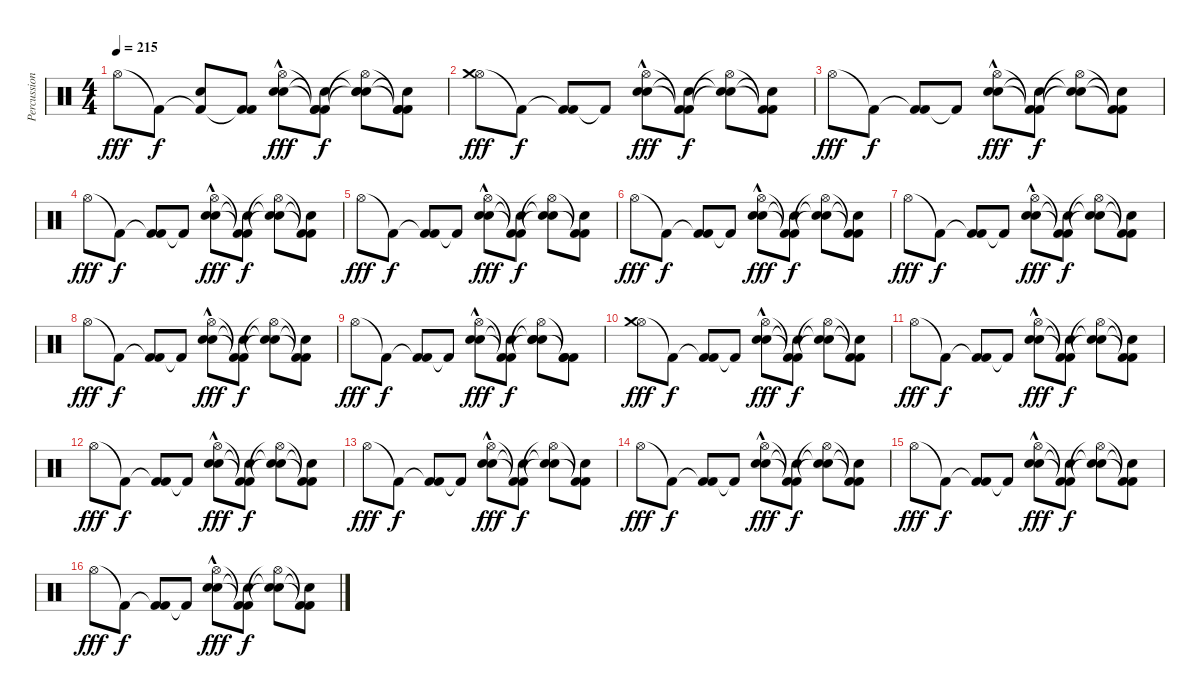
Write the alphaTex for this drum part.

\track ("Percussion" "Percussion") {instrument percussion}
\staff {score}
\articulation defaults
\ts (4 4)
\tempo 215
\clef neutral
\ks c "Hi-Hat (open)".8{dy fff} "Kick (hit) 2"{t}.8{dy f}
("Kick (hit) 2"{t} "Electric Snare (hit)").8 ("Kick (hit) 2"{t} "Kick (hit) 2").8 ("Snare (hit) 2"{hac} "Hi-Hat (open)"{hac} "Electric Snare (hit)").8{dy fff} ("Kick (hit) 2"{t} "Kick (hit) 2"{t} "Snare (hit)"{t} "Kick (hit) 2").8{dy f} ("Snare (hit)"{t} "Hi-Hat (open)"{t} "Snare (hit)"{t} "Electric Snare (hit)").8 ("Kick (hit) 2"{t} "Kick (hit) 2"{t} "Snare (hit)"{t} "Kick (hit) 2").8 |
("Hi-Hat (open)" "Crash medium (hit)").8{dy fff} "Kick (hit) 2"{t}.8{dy f} ("Kick (hit) 2"{t} "Kick (hit) 2").8 "Kick (hit) 2"{t}.8 ("Snare (hit) 2"{hac} "Hi-Hat (open)"{hac} "Electric Snare (hit)").8{dy fff} ("Kick (hit) 2"{t} "Kick (hit) 2"{t} "Snare (hit)"{t}).8{dy f} ("Snare (hit)"{t} "Hi-Hat (open)"{t} "Snare (hit)"{t}).8 ("Kick (hit) 2"{t} "Kick (hit) 2"{t} "Snare (hit)"{t}).8 |
"Hi-Hat (open)".8{dy fff} "Kick (hit) 2"{t}.8{dy f} ("Kick (hit) 2"{t} "Kick (hit) 2").8 "Kick (hit) 2"{t}.8 ("Snare (hit) 2"{hac} "Hi-Hat (open)"{hac} "Electric Snare (hit)").8{dy fff} ("Kick (hit) 2"{t} "Kick (hit) 2"{t} "Snare (hit)"{t}).8{dy f} ("Snare (hit)"{t} "Hi-Hat (open)"{t} "Snare (hit)"{t}).8 ("Kick (hit) 2"{t} "Kick (hit) 2"{t} "Snare (hit)"{t}).8 |
"Hi-Hat (open)".8{dy fff} "Kick (hit) 2"{t}.8{dy f} ("Kick (hit) 2"{t} "Kick (hit) 2").8 "Kick (hit) 2"{t}.8 ("Snare (hit) 2"{hac} "Hi-Hat (open)"{hac} "Electric Snare (hit)").8{dy fff} ("Kick (hit) 2"{t} "Kick (hit) 2"{t} "Snare (hit)"{t}).8{dy f} ("Snare (hit)"{t} "Hi-Hat (open)"{t} "Snare (hit)"{t}).8 ("Kick (hit) 2"{t} "Kick (hit) 2"{t} "Snare (hit)"{t}).8 |
"Hi-Hat (open)".8{dy fff} "Kick (hit) 2"{t}.8{dy f} ("Kick (hit) 2"{t} "Kick (hit) 2").8 "Kick (hit) 2"{t}.8 ("Snare (hit) 2"{hac} "Hi-Hat (open)"{hac} "Electric Snare (hit)").8{dy fff} ("Kick (hit) 2"{t} "Kick (hit) 2"{t} "Snare (hit)"{t}).8{dy f} ("Snare (hit)"{t} "Hi-Hat (open)"{t} "Snare (hit)"{t}).8 ("Kick (hit) 2"{t} "Kick (hit) 2"{t} "Electric Snare (hit)").8 |
"Hi-Hat (open)".8{dy fff} "Kick (hit) 2"{t}.8{dy f} ("Kick (hit) 2"{t} "Kick (hit) 2").8 "Kick (hit) 2"{t}.8 ("Snare (hit) 2"{hac} "Hi-Hat (open)"{hac} "Electric Snare (hit)").8{dy fff} ("Kick (hit) 2"{t} "Kick (hit) 2"{t} "Snare (hit)"{t}).8{dy f} ("Snare (hit)"{t} "Hi-Hat (open)"{t} "Snare (hit)"{t}).8 ("Kick (hit) 2"{t} "Kick (hit) 2"{t} "Snare (hit)"{t}).8 |
"Hi-Hat (open)".8{dy fff} "Kick (hit) 2"{t}.8{dy f} ("Kick (hit) 2"{t} "Kick (hit) 2").8 "Kick (hit) 2"{t}.8 ("Snare (hit) 2"{hac} "Hi-Hat (open)"{hac} "Electric Snare (hit)").8{dy fff} ("Kick (hit) 2"{t} "Kick (hit) 2"{t} "Snare (hit)"{t}).8{dy f} ("Snare (hit)"{t} "Hi-Hat (open)"{t} "Snare (hit)"{t}).8 ("Kick (hit) 2"{t} "Kick (hit) 2"{t} "Snare (hit)"{t}).8 |
"Hi-Hat (open)".8{dy fff} "Kick (hit) 2"{t}.8{dy f} ("Kick (hit) 2"{t} "Kick (hit) 2").8 "Kick (hit) 2"{t}.8 ("Snare (hit) 2"{hac} "Hi-Hat (open)"{hac} "Electric Snare (hit)").8{dy fff} ("Kick (hit) 2"{t} "Kick (hit) 2"{t} "Snare (hit)"{t}).8{dy f} ("Snare (hit)"{t} "Hi-Hat (open)"{t} "Snare (hit)"{t}).8 ("Kick (hit) 2"{t} "Kick (hit) 2"{t} "Snare (hit)"{t}).8 |
"Hi-Hat (open)".8{dy fff} "Kick (hit) 2"{t}.8{dy f} ("Kick (hit) 2"{t} "Kick (hit) 2").8 "Kick (hit) 2"{t}.8 ("Snare (hit) 2"{hac} "Hi-Hat (open)"{hac} "Electric Snare (hit)").8{dy fff} ("Kick (hit) 2"{t} "Kick (hit) 2"{t} "Snare (hit)"{t}).8{dy f} ("Snare (hit)"{t} "Hi-Hat (open)"{t} "Snare (hit)"{t} "Electric Snare (hit)").8 ("Kick (hit) 2"{t} "Kick (hit) 2"{t} "Kick (hit) 2").8 |
("Hi-Hat (open)" "Crash medium (hit)").8{dy fff} "Kick (hit) 2"{t}.8{dy f} ("Kick (hit) 2"{t} "Kick (hit) 2").8 "Kick (hit) 2"{t}.8 ("Snare (hit) 2"{hac} "Hi-Hat (open)"{hac} "Electric Snare (hit)").8{dy fff} ("Kick (hit) 2"{t} "Kick (hit) 2"{t} "Snare (hit)"{t}).8{dy f} ("Snare (hit)"{t} "Hi-Hat (open)"{t} "Snare (hit)"{t}).8 ("Kick (hit) 2"{t} "Kick (hit) 2"{t} "Snare (hit)"{t}).8 |
"Hi-Hat (open)".8{dy fff} "Kick (hit) 2"{t}.8{dy f} ("Kick (hit) 2"{t} "Kick (hit) 2").8 "Kick (hit) 2"{t}.8 ("Snare (hit) 2"{hac} "Hi-Hat (open)"{hac} "Electric Snare (hit)").8{dy fff} ("Kick (hit) 2"{t} "Kick (hit) 2"{t} "Snare (hit)"{t}).8{dy f} ("Snare (hit)"{t} "Hi-Hat (open)"{t} "Snare (hit)"{t}).8 ("Kick (hit) 2"{t} "Kick (hit) 2"{t} "Snare (hit)"{t}).8 |
"Hi-Hat (open)".8{dy fff} "Kick (hit) 2"{t}.8{dy f} ("Kick (hit) 2"{t} "Kick (hit) 2").8 "Kick (hit) 2"{t}.8 ("Snare (hit) 2"{hac} "Hi-Hat (open)"{hac} "Electric Snare (hit)").8{dy fff} ("Kick (hit) 2"{t} "Kick (hit) 2"{t} "Snare (hit)"{t}).8{dy f} ("Snare (hit)"{t} "Hi-Hat (open)"{t} "Snare (hit)"{t}).8 ("Kick (hit) 2"{t} "Kick (hit) 2"{t} "Snare (hit)"{t}).8 |
"Hi-Hat (open)".8{dy fff} "Kick (hit) 2"{t}.8{dy f} ("Kick (hit) 2"{t} "Kick (hit) 2").8 "Kick (hit) 2"{t}.8 ("Snare (hit) 2"{hac} "Hi-Hat (open)"{hac} "Electric Snare (hit)").8{dy fff} ("Kick (hit) 2"{t} "Kick (hit) 2"{t} "Snare (hit)"{t}).8{dy f} ("Snare (hit)"{t} "Hi-Hat (open)"{t} "Snare (hit)"{t}).8 ("Kick (hit) 2"{t} "Kick (hit) 2"{t} "Electric Snare (hit)").8 |
"Hi-Hat (open)".8{dy fff} "Kick (hit) 2"{t}.8{dy f} ("Kick (hit) 2"{t} "Kick (hit) 2").8 "Kick (hit) 2"{t}.8 ("Snare (hit) 2"{hac} "Hi-Hat (open)"{hac} "Electric Snare (hit)").8{dy fff} ("Kick (hit) 2"{t} "Kick (hit) 2"{t} "Snare (hit)"{t}).8{dy f} ("Snare (hit)"{t} "Hi-Hat (open)"{t} "Snare (hit)"{t}).8 ("Kick (hit) 2"{t} "Kick (hit) 2"{t} "Snare (hit)"{t}).8 |
"Hi-Hat (open)".8{dy fff} "Kick (hit) 2"{t}.8{dy f} ("Kick (hit) 2"{t} "Kick (hit) 2").8 "Kick (hit) 2"{t}.8 ("Snare (hit) 2"{hac} "Hi-Hat (open)"{hac} "Electric Snare (hit)").8{dy fff} ("Kick (hit) 2"{t} "Kick (hit) 2"{t} "Snare (hit)"{t}).8{dy f} ("Snare (hit)"{t} "Hi-Hat (open)"{t} "Snare (hit)"{t}).8 ("Kick (hit) 2"{t} "Kick (hit) 2"{t} "Snare (hit)"{t}).8 |
"Hi-Hat (open)".8{dy fff} "Kick (hit) 2"{t}.8{dy f} ("Kick (hit) 2"{t} "Kick (hit) 2").8 "Kick (hit) 2"{t}.8 ("Snare (hit) 2"{hac} "Hi-Hat (open)"{hac} "Electric Snare (hit)").8{dy fff} ("Kick (hit) 2"{t} "Kick (hit) 2"{t} "Snare (hit)"{t}).8{dy f} ("Snare (hit)"{t} "Hi-Hat (open)"{t} "Snare (hit)"{t}).8 ("Kick (hit) 2"{t} "Kick (hit) 2"{t} "Snare (hit)"{t}).8
